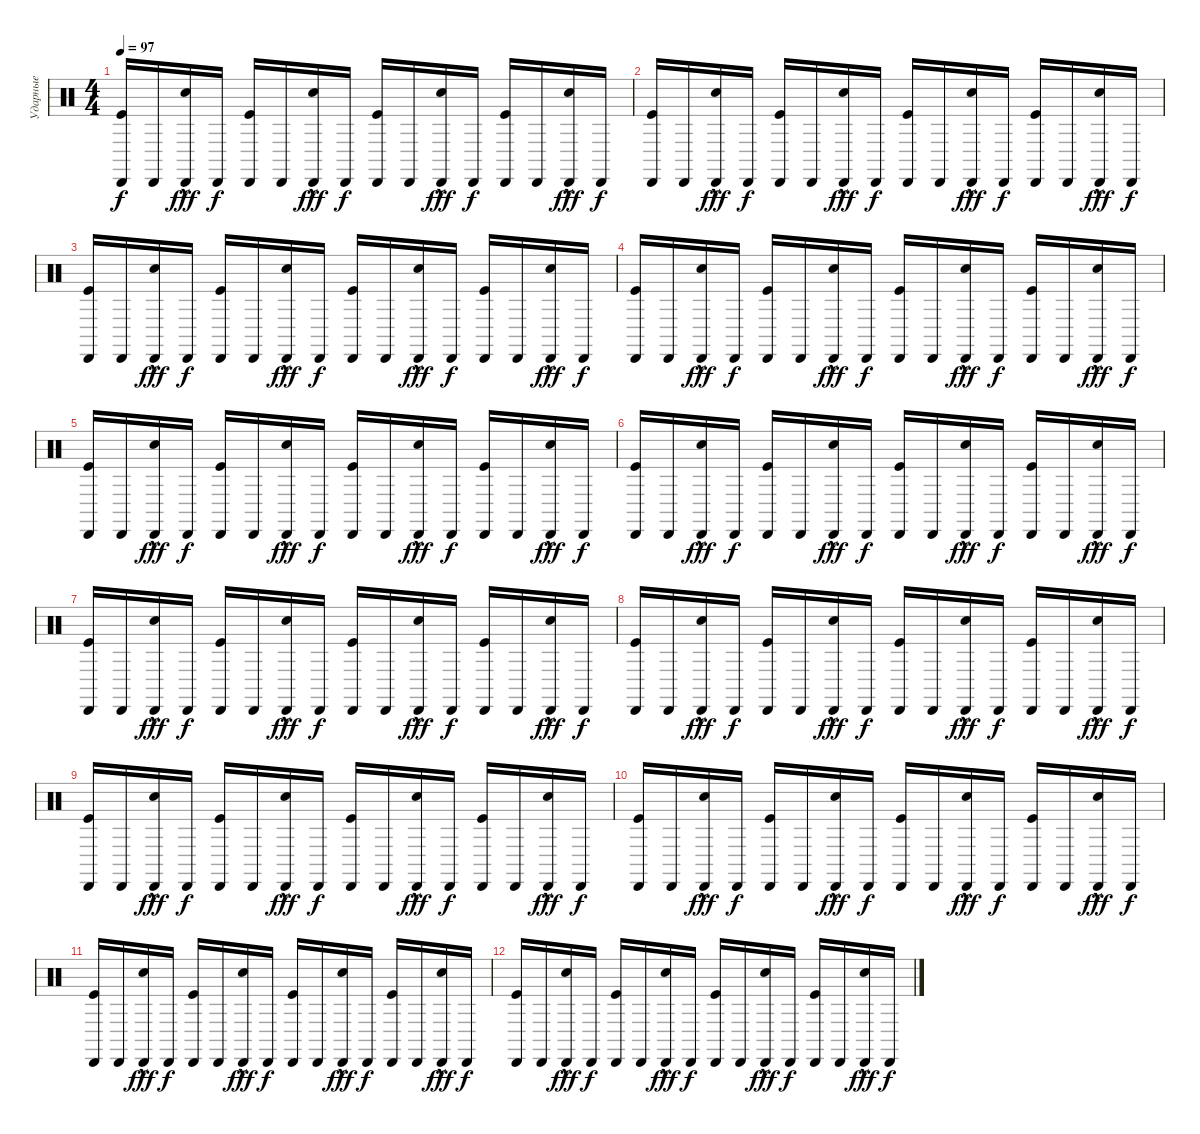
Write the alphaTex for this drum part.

\track ("Ударные" "Ударные") {instrument percussion}
\staff {score}
\articulation defaults
\ts (4 4)
\tempo 97
\clef neutral
\ks c
("Cabasa (hit)" "Kick (hit)").16{dy f} "Cabasa (hit)".16 ("Cabasa (hit)"{hac} "Hand Clap (hit)").16{dy fff} "Cabasa (hit)".16{dy f} ("Cabasa (hit)" "Kick (hit)").16 "Cabasa (hit)".16 ("Cabasa (hit)"{hac} "Hand Clap (hit)").16{dy fff} "Cabasa (hit)".16{dy f} ("Cabasa (hit)" "Kick (hit)").16 "Cabasa (hit)".16 ("Cabasa (hit)"{hac} "Hand Clap (hit)").16{dy fff} "Cabasa (hit)".16{dy f} ("Cabasa (hit)" "Kick (hit)").16 "Cabasa (hit)".16 ("Cabasa (hit)"{hac} "Hand Clap (hit)").16{dy fff} "Cabasa (hit)".16{dy f} |
("Cabasa (hit)" "Kick (hit)").16 "Cabasa (hit)".16 ("Cabasa (hit)"{hac} "Hand Clap (hit)").16{dy fff} "Cabasa (hit)".16{dy f} ("Cabasa (hit)" "Kick (hit)").16 "Cabasa (hit)".16 ("Cabasa (hit)"{hac} "Hand Clap (hit)").16{dy fff} "Cabasa (hit)".16{dy f} ("Cabasa (hit)" "Kick (hit)").16 "Cabasa (hit)".16 ("Cabasa (hit)"{hac} "Hand Clap (hit)").16{dy fff} "Cabasa (hit)".16{dy f} ("Cabasa (hit)" "Kick (hit)").16 "Cabasa (hit)".16 ("Cabasa (hit)"{hac} "Hand Clap (hit)").16{dy fff} "Cabasa (hit)".16{dy f} |
("Cabasa (hit)" "Kick (hit)").16 "Cabasa (hit)".16 ("Cabasa (hit)"{hac} "Hand Clap (hit)").16{dy fff} "Cabasa (hit)".16{dy f} ("Cabasa (hit)" "Kick (hit)").16 "Cabasa (hit)".16 ("Cabasa (hit)"{hac} "Hand Clap (hit)").16{dy fff} "Cabasa (hit)".16{dy f} ("Cabasa (hit)" "Kick (hit)").16 "Cabasa (hit)".16 ("Cabasa (hit)"{hac} "Hand Clap (hit)").16{dy fff} "Cabasa (hit)".16{dy f} ("Cabasa (hit)" "Kick (hit)").16 "Cabasa (hit)".16 ("Cabasa (hit)"{hac} "Hand Clap (hit)").16{dy fff} "Cabasa (hit)".16{dy f} |
("Cabasa (hit)" "Kick (hit)").16 "Cabasa (hit)".16 ("Cabasa (hit)"{hac} "Hand Clap (hit)").16{dy fff} "Cabasa (hit)".16{dy f} ("Cabasa (hit)" "Kick (hit)").16 "Cabasa (hit)".16 ("Cabasa (hit)"{hac} "Hand Clap (hit)").16{dy fff} "Cabasa (hit)".16{dy f} ("Cabasa (hit)" "Kick (hit)").16 "Cabasa (hit)".16 ("Cabasa (hit)"{hac} "Hand Clap (hit)").16{dy fff} "Cabasa (hit)".16{dy f} ("Cabasa (hit)" "Kick (hit)").16 "Cabasa (hit)".16 ("Cabasa (hit)"{hac} "Hand Clap (hit)").16{dy fff} "Cabasa (hit)".16{dy f} |
("Cabasa (hit)" "Kick (hit)").16 "Cabasa (hit)".16 ("Cabasa (hit)"{hac} "Hand Clap (hit)").16{dy fff} "Cabasa (hit)".16{dy f} ("Cabasa (hit)" "Kick (hit)").16 "Cabasa (hit)".16 ("Cabasa (hit)"{hac} "Hand Clap (hit)").16{dy fff} "Cabasa (hit)".16{dy f} ("Cabasa (hit)" "Kick (hit)").16 "Cabasa (hit)".16 ("Cabasa (hit)"{hac} "Hand Clap (hit)").16{dy fff} "Cabasa (hit)".16{dy f} ("Cabasa (hit)" "Kick (hit)").16 "Cabasa (hit)".16 ("Cabasa (hit)"{hac} "Hand Clap (hit)").16{dy fff} "Cabasa (hit)".16{dy f} |
("Cabasa (hit)" "Kick (hit)").16 "Cabasa (hit)".16 ("Cabasa (hit)"{hac} "Hand Clap (hit)").16{dy fff} "Cabasa (hit)".16{dy f} ("Cabasa (hit)" "Kick (hit)").16 "Cabasa (hit)".16 ("Cabasa (hit)"{hac} "Hand Clap (hit)").16{dy fff} "Cabasa (hit)".16{dy f} ("Cabasa (hit)" "Kick (hit)").16 "Cabasa (hit)".16 ("Cabasa (hit)"{hac} "Hand Clap (hit)").16{dy fff} "Cabasa (hit)".16{dy f} ("Cabasa (hit)" "Kick (hit)").16 "Cabasa (hit)".16 ("Cabasa (hit)"{hac} "Hand Clap (hit)").16{dy fff} "Cabasa (hit)".16{dy f} |
("Cabasa (hit)" "Kick (hit)").16 "Cabasa (hit)".16 ("Cabasa (hit)"{hac} "Hand Clap (hit)").16{dy fff} "Cabasa (hit)".16{dy f} ("Cabasa (hit)" "Kick (hit)").16 "Cabasa (hit)".16 ("Cabasa (hit)"{hac} "Hand Clap (hit)").16{dy fff} "Cabasa (hit)".16{dy f} ("Cabasa (hit)" "Kick (hit)").16 "Cabasa (hit)".16 ("Cabasa (hit)"{hac} "Hand Clap (hit)").16{dy fff} "Cabasa (hit)".16{dy f} ("Cabasa (hit)" "Kick (hit)").16 "Cabasa (hit)".16 ("Cabasa (hit)"{hac} "Hand Clap (hit)").16{dy fff} "Cabasa (hit)".16{dy f} |
("Cabasa (hit)" "Kick (hit)").16 "Cabasa (hit)".16 ("Cabasa (hit)"{hac} "Hand Clap (hit)").16{dy fff} "Cabasa (hit)".16{dy f} ("Cabasa (hit)" "Kick (hit)").16 "Cabasa (hit)".16 ("Cabasa (hit)"{hac} "Hand Clap (hit)").16{dy fff} "Cabasa (hit)".16{dy f} ("Cabasa (hit)" "Kick (hit)").16 "Cabasa (hit)".16 ("Cabasa (hit)"{hac} "Hand Clap (hit)").16{dy fff} "Cabasa (hit)".16{dy f} ("Cabasa (hit)" "Kick (hit)").16 "Cabasa (hit)".16 ("Cabasa (hit)"{hac} "Hand Clap (hit)").16{dy fff} "Cabasa (hit)".16{dy f} |
("Cabasa (hit)" "Kick (hit)").16 "Cabasa (hit)".16 ("Cabasa (hit)"{hac} "Hand Clap (hit)").16{dy fff} "Cabasa (hit)".16{dy f} ("Cabasa (hit)" "Kick (hit)").16 "Cabasa (hit)".16 ("Cabasa (hit)"{hac} "Hand Clap (hit)").16{dy fff} "Cabasa (hit)".16{dy f} ("Cabasa (hit)" "Kick (hit)").16 "Cabasa (hit)".16 ("Cabasa (hit)"{hac} "Hand Clap (hit)").16{dy fff} "Cabasa (hit)".16{dy f} ("Cabasa (hit)" "Kick (hit)").16 "Cabasa (hit)".16 ("Cabasa (hit)"{hac} "Hand Clap (hit)").16{dy fff} "Cabasa (hit)".16{dy f} |
("Cabasa (hit)" "Kick (hit)").16 "Cabasa (hit)".16 ("Cabasa (hit)"{hac} "Hand Clap (hit)").16{dy fff} "Cabasa (hit)".16{dy f} ("Cabasa (hit)" "Kick (hit)").16 "Cabasa (hit)".16 ("Cabasa (hit)"{hac} "Hand Clap (hit)").16{dy fff} "Cabasa (hit)".16{dy f} ("Cabasa (hit)" "Kick (hit)").16 "Cabasa (hit)".16 ("Cabasa (hit)"{hac} "Hand Clap (hit)").16{dy fff} "Cabasa (hit)".16{dy f} ("Cabasa (hit)" "Kick (hit)").16 "Cabasa (hit)".16 ("Cabasa (hit)"{hac} "Hand Clap (hit)").16{dy fff} "Cabasa (hit)".16{dy f} |
("Cabasa (hit)" "Kick (hit)").16 "Cabasa (hit)".16 ("Cabasa (hit)"{hac} "Hand Clap (hit)").16{dy fff} "Cabasa (hit)".16{dy f} ("Cabasa (hit)" "Kick (hit)").16 "Cabasa (hit)".16 ("Cabasa (hit)"{hac} "Hand Clap (hit)").16{dy fff} "Cabasa (hit)".16{dy f} ("Cabasa (hit)" "Kick (hit)").16 "Cabasa (hit)".16 ("Cabasa (hit)"{hac} "Hand Clap (hit)").16{dy fff} "Cabasa (hit)".16{dy f} ("Cabasa (hit)" "Kick (hit)").16 "Cabasa (hit)".16 ("Cabasa (hit)"{hac} "Hand Clap (hit)").16{dy fff} "Cabasa (hit)".16{dy f} |
("Cabasa (hit)" "Kick (hit)").16 "Cabasa (hit)".16 ("Cabasa (hit)"{hac} "Hand Clap (hit)").16{dy fff} "Cabasa (hit)".16{dy f} ("Cabasa (hit)" "Kick (hit)").16 "Cabasa (hit)".16 ("Cabasa (hit)"{hac} "Hand Clap (hit)").16{dy fff} "Cabasa (hit)".16{dy f} ("Cabasa (hit)" "Kick (hit)").16 "Cabasa (hit)".16 ("Cabasa (hit)"{hac} "Hand Clap (hit)").16{dy fff} "Cabasa (hit)".16{dy f} ("Cabasa (hit)" "Kick (hit)").16 "Cabasa (hit)".16 ("Cabasa (hit)"{hac} "Hand Clap (hit)").16{dy fff} "Cabasa (hit)".16{dy f}
